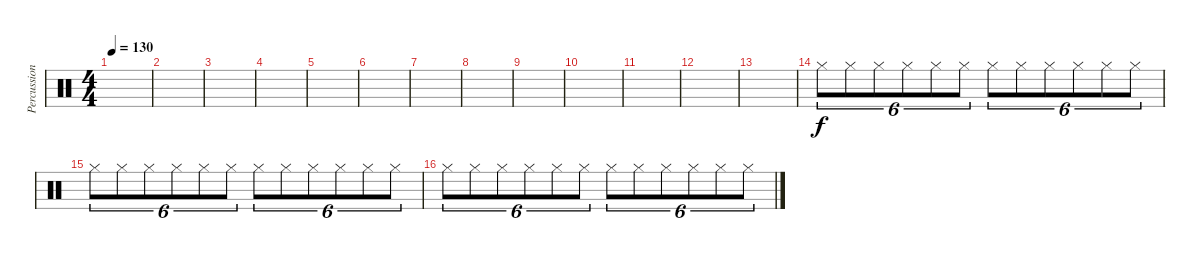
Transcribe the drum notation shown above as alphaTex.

\track ("Percussion" "Percussion") {instrument percussion bank 177}
\staff {score}
\articulation defaults
\ts (4 4)
\tempo 130
\clef neutral
\ks c
|
|
|
|
|
|
|
|
|
|
|
|
|
"Hi-Hat (closed)".8{tu (6 4)} "Hi-Hat (closed)".8{tu (6 4)} "Hi-Hat (closed)".8{tu (6 4)} "Hi-Hat (closed)".8{tu (6 4)} "Hi-Hat (closed)".8{tu (6 4)} "Hi-Hat (closed)".8{tu (6 4)} "Hi-Hat (closed)".8{tu (6 4)} "Hi-Hat (closed)".8{tu (6 4)} "Hi-Hat (closed)".8{tu (6 4)} "Hi-Hat (closed)".8{tu (6 4)} "Hi-Hat (closed)".8{tu (6 4)} "Hi-Hat (closed)".8{tu (6 4)} |
"Hi-Hat (closed)".8{tu (6 4)} "Hi-Hat (closed)".8{tu (6 4)} "Hi-Hat (closed)".8{tu (6 4)} "Hi-Hat (closed)".8{tu (6 4)} "Hi-Hat (closed)".8{tu (6 4)} "Hi-Hat (closed)".8{tu (6 4)} "Hi-Hat (closed)".8{tu (6 4)} "Hi-Hat (closed)".8{tu (6 4)} "Hi-Hat (closed)".8{tu (6 4)} "Hi-Hat (closed)".8{tu (6 4)} "Hi-Hat (closed)".8{tu (6 4)} "Hi-Hat (closed)".8{tu (6 4)} |
"Hi-Hat (closed)".8{tu (6 4)} "Hi-Hat (closed)".8{tu (6 4)} "Hi-Hat (closed)".8{tu (6 4)} "Hi-Hat (closed)".8{tu (6 4)} "Hi-Hat (closed)".8{tu (6 4)} "Hi-Hat (closed)".8{tu (6 4)} "Hi-Hat (closed)".8{tu (6 4)} "Hi-Hat (closed)".8{tu (6 4)} "Hi-Hat (closed)".8{tu (6 4)} "Hi-Hat (closed)".8{tu (6 4)} "Hi-Hat (closed)".8{tu (6 4)} "Hi-Hat (closed)".8{tu (6 4)}
